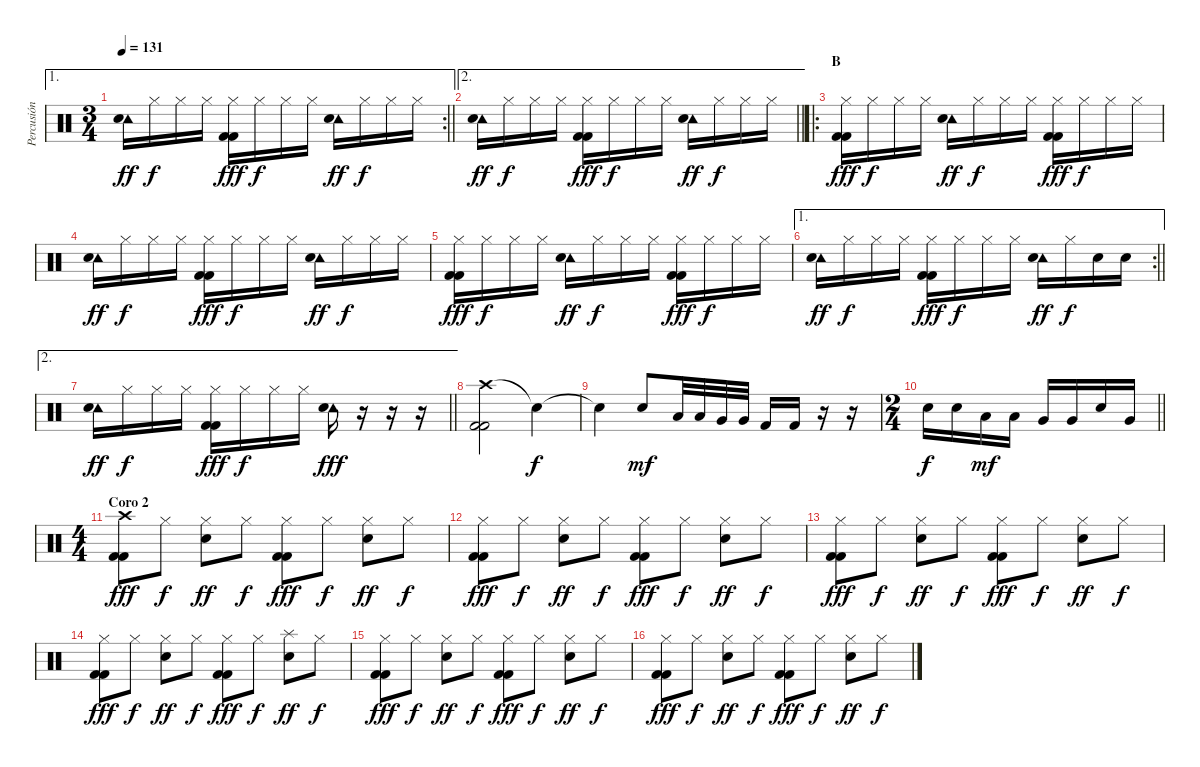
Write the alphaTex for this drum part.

\track ("Percusión" "Percusión") {instrument percussion}
\staff {score}
\articulation defaults
\ae 1
\rc 2
\ts (3 4)
\tempo 131
\clef neutral
\barLineRight lightlight
\ks c
("Tambourine (hit)" "Electric Snare (hit)").16{dy ff} "Hi-Hat (closed)".16{dy f} "Hi-Hat (closed)".16 "Hi-Hat (closed)".16 ("Hi-Hat (closed)" "Kick (hit) 2" "Kick (hit) 2").16{dy fff} "Hi-Hat (closed)".16{dy f} "Hi-Hat (closed)".16 "Hi-Hat (closed)".16 ("Tambourine (hit)" "Electric Snare (hit)").16{dy ff} "Hi-Hat (closed)".16{dy f} "Hi-Hat (closed)".16 "Hi-Hat (closed)".16 |
\ae 2
\barLineRight lightlight
("Tambourine (hit)" "Electric Snare (hit)").16{dy ff} "Hi-Hat (closed)".16{dy f} "Hi-Hat (closed)".16 "Hi-Hat (closed)".16 ("Hi-Hat (closed)" "Kick (hit) 2" "Kick (hit) 2").16{dy fff} "Hi-Hat (closed)".16{dy f} "Hi-Hat (closed)".16 "Hi-Hat (closed)".16 ("Tambourine (hit)" "Electric Snare (hit)").16{dy ff} "Hi-Hat (closed)".16{dy f} "Hi-Hat (closed)".16 "Hi-Hat (closed)".16 |
\ro
\section ("" "B")
("Hi-Hat (closed)" "Kick (hit) 2" "Kick (hit) 2").16{dy fff} "Hi-Hat (closed)".16{dy f} "Hi-Hat (closed)".16 "Hi-Hat (closed)".16 ("Tambourine (hit)" "Electric Snare (hit)").16{dy ff} "Hi-Hat (closed)".16{dy f} "Hi-Hat (closed)".16 "Hi-Hat (closed)".16 ("Hi-Hat (closed)" "Kick (hit) 2" "Kick (hit) 2").16{dy fff} "Hi-Hat (closed)".16{dy f} "Hi-Hat (closed)".16 "Hi-Hat (closed)".16 |
("Tambourine (hit)" "Electric Snare (hit)").16{dy ff} "Hi-Hat (closed)".16{dy f} "Hi-Hat (closed)".16 "Hi-Hat (closed)".16 ("Hi-Hat (closed)" "Kick (hit) 2" "Kick (hit) 2").16{dy fff} "Hi-Hat (closed)".16{dy f} "Hi-Hat (closed)".16 "Hi-Hat (closed)".16 ("Tambourine (hit)" "Electric Snare (hit)").16{dy ff} "Hi-Hat (closed)".16{dy f} "Hi-Hat (closed)".16 "Hi-Hat (closed)".16 |
("Hi-Hat (closed)" "Kick (hit) 2" "Kick (hit) 2").16{dy fff} "Hi-Hat (closed)".16{dy f} "Hi-Hat (closed)".16 "Hi-Hat (closed)".16 ("Tambourine (hit)" "Electric Snare (hit)").16{dy ff} "Hi-Hat (closed)".16{dy f} "Hi-Hat (closed)".16 "Hi-Hat (closed)".16 ("Hi-Hat (closed)" "Kick (hit) 2" "Kick (hit) 2").16{dy fff} "Hi-Hat (closed)".16{dy f} "Hi-Hat (closed)".16 "Hi-Hat (closed)".16 |
\ae 1
\rc 2
\barLineRight lightlight
("Tambourine (hit)" "Electric Snare (hit)").16{dy ff} "Hi-Hat (closed)".16{dy f} "Hi-Hat (closed)".16 "Hi-Hat (closed)".16 ("Hi-Hat (closed)" "Kick (hit) 2" "Kick (hit) 2").16{dy fff} "Hi-Hat (closed)".16{dy f} "Hi-Hat (closed)".16 "Hi-Hat (closed)".16 ("Tambourine (hit)" "Electric Snare (hit)").16{dy ff} "Hi-Hat (closed)".16{dy f} "Electric Snare (hit)".16 "Electric Snare (hit)".16 |
\ae 2
\barLineRight lightlight
("Tambourine (hit)" "Electric Snare (hit)").16{dy ff} "Hi-Hat (closed)".16{dy f} "Hi-Hat (closed)".16 "Hi-Hat (closed)".16 ("Hi-Hat (closed)" "Kick (hit) 2" "Kick (hit) 2").16{dy fff} "Hi-Hat (closed)".16{dy f} "Hi-Hat (closed)".16 "Hi-Hat (closed)".16 ("Tambourine (hit)" "Electric Snare (hit)").16{dy fff} r.16 r.16 r.16 |
\section ("" "")
("Crash high (hit)" "Kick (hit) 2" "Kick (hit) 2").2 "Snare (hit)"{t}.4{dy f} |
"Snare (hit)"{t}.4 "Electric Snare (hit)".8{dy mf} "Low Floor Tom (hit)".32 "Low Floor Tom (hit)".32 "Very Low Tom (hit)".32 "Very Low Tom (hit)".32 "Kick (hit) 2".16 "Kick (hit) 2".16 r.16 r.16 |
\ts (2 4)
\barLineRight lightlight "Electric Snare (hit)".16{dy f} "Electric Snare (hit)".16 "Low Tom (hit)".16{dy mf} "Low Tom (hit)".16 "Very Low Tom (hit)".16 "Very Low Tom (hit)".16 "Electric Snare (hit)".16 "Very Low Tom (hit)".16
|
\ts (4 4)
\section ("" "Coro 2")
("Crash high (hit)" "Kick (hit) 2" "Kick (hit) 2").8{dy fff} "Hi-Hat (closed)".8{dy f} ("Hi-Hat (closed)" "Electric Snare (hit)").8{dy ff} "Hi-Hat (closed)".8{dy f} ("Hi-Hat (closed)" "Kick (hit) 2" "Kick (hit) 2").8{dy fff} "Hi-Hat (closed)".8{dy f} ("Hi-Hat (closed)" "Electric Snare (hit)").8{dy ff} "Hi-Hat (closed)".8{dy f} |
("Hi-Hat (closed)" "Kick (hit) 2" "Kick (hit) 2").8{dy fff} "Hi-Hat (closed)".8{dy f} ("Hi-Hat (closed)" "Electric Snare (hit)").8{dy ff} "Hi-Hat (closed)".8{dy f} ("Hi-Hat (closed)" "Kick (hit) 2" "Kick (hit) 2").8{dy fff} "Hi-Hat (closed)".8{dy f} ("Hi-Hat (closed)" "Electric Snare (hit)").8{dy ff} "Hi-Hat (closed)".8{dy f} |
("Hi-Hat (closed)" "Kick (hit) 2" "Kick (hit) 2").8{dy fff} "Hi-Hat (closed)".8{dy f} ("Hi-Hat (closed)" "Electric Snare (hit)").8{dy ff} "Hi-Hat (closed)".8{dy f} ("Hi-Hat (closed)" "Kick (hit) 2" "Kick (hit) 2").8{dy fff} "Hi-Hat (closed)".8{dy f} ("Hi-Hat (closed)" "Electric Snare (hit)").8{dy ff} "Hi-Hat (closed)".8{dy f} |
("Hi-Hat (closed)" "Kick (hit) 2" "Kick (hit) 2").8{dy fff} "Hi-Hat (closed)".8{dy f} ("Hi-Hat (closed)" "Electric Snare (hit)").8{dy ff} "Hi-Hat (closed)".8{dy f} ("Hi-Hat (closed)" "Kick (hit) 2" "Kick (hit) 2").8{dy fff} "Hi-Hat (closed)".8{dy f} ("Splash (hit)" "Electric Snare (hit)").8{dy ff} "Hi-Hat (closed)".8{dy f} |
("Hi-Hat (closed)" "Kick (hit) 2" "Kick (hit) 2").8{dy fff} "Hi-Hat (closed)".8{dy f} ("Hi-Hat (closed)" "Electric Snare (hit)").8{dy ff} "Hi-Hat (closed)".8{dy f} ("Hi-Hat (closed)" "Kick (hit) 2" "Kick (hit) 2").8{dy fff} "Hi-Hat (closed)".8{dy f} ("Hi-Hat (closed)" "Electric Snare (hit)").8{dy ff} "Hi-Hat (closed)".8{dy f} |
("Hi-Hat (closed)" "Kick (hit) 2" "Kick (hit) 2").8{dy fff} "Hi-Hat (closed)".8{dy f} ("Hi-Hat (closed)" "Electric Snare (hit)").8{dy ff} "Hi-Hat (closed)".8{dy f} ("Hi-Hat (closed)" "Kick (hit) 2" "Kick (hit) 2").8{dy fff} "Hi-Hat (closed)".8{dy f} ("Hi-Hat (closed)" "Electric Snare (hit)").8{dy ff} "Hi-Hat (closed)".8{dy f}
